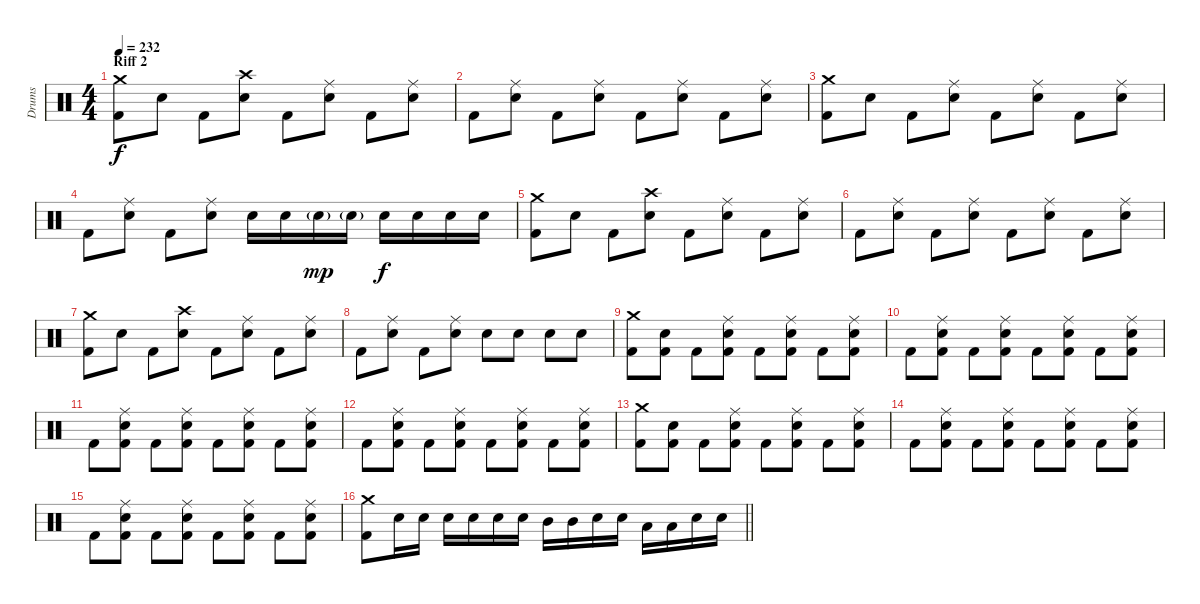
\track ("Drums" "Drums") {instrument percussion}
\staff {score}
\articulation defaults
\ts (4 4)
\section ("" "Riff 2")
\tempo 232
\clef neutral
\ks c
("Kick (hit) 2" "Crash medium (hit)").8{dy f} "Electric Snare (hit)".8 "Kick (hit) 2".8 ("Crash high (hit)" "Electric Snare (hit)").8 "Kick (hit) 2".8 ("Electric Snare (hit)" "Ride (middle)").8 "Kick (hit) 2".8 ("Electric Snare (hit)" "Ride (middle)").8 |
"Kick (hit) 2".8 ("Electric Snare (hit)" "Ride (middle)").8 "Kick (hit) 2".8 ("Electric Snare (hit)" "Ride (middle)").8 "Kick (hit) 2".8 ("Electric Snare (hit)" "Ride (middle)").8 "Kick (hit) 2".8 ("Electric Snare (hit)" "Ride (middle)").8 |
("Kick (hit) 2" "Crash medium (hit)").8 "Electric Snare (hit)".8 "Kick (hit) 2".8 ("Electric Snare (hit)" "Ride (middle)").8 "Kick (hit) 2".8 ("Electric Snare (hit)" "Ride (middle)").8 "Kick (hit) 2".8 ("Electric Snare (hit)" "Ride (middle)").8 |
"Kick (hit) 2".8 ("Electric Snare (hit)" "Ride (middle)").8 "Kick (hit) 2".8 ("Electric Snare (hit)" "Ride (middle)").8 "Electric Snare (hit)".16 "Electric Snare (hit)".16 "Electric Snare (hit)"{g}.16{dy mp} "Electric Snare (hit)"{g}.16 "Electric Snare (hit)".16{dy f} "Electric Snare (hit)".16 "Electric Snare (hit)".16 "Electric Snare (hit)".16 |
("Kick (hit) 2" "Crash medium (hit)").8 "Electric Snare (hit)".8 "Kick (hit) 2".8 ("Crash high (hit)" "Electric Snare (hit)").8 "Kick (hit) 2".8 ("Electric Snare (hit)" "Ride (middle)").8 "Kick (hit) 2".8 ("Electric Snare (hit)" "Ride (middle)").8 |
"Kick (hit) 2".8 ("Electric Snare (hit)" "Ride (middle)").8 "Kick (hit) 2".8 ("Electric Snare (hit)" "Ride (middle)").8 "Kick (hit) 2".8 ("Electric Snare (hit)" "Ride (middle)").8 "Kick (hit) 2".8 ("Electric Snare (hit)" "Ride (middle)").8 |
("Kick (hit) 2" "Crash medium (hit)").8 "Electric Snare (hit)".8 "Kick (hit) 2".8 ("Crash high (hit)" "Electric Snare (hit)").8 "Kick (hit) 2".8 ("Electric Snare (hit)" "Ride (middle)").8 "Kick (hit) 2".8 ("Electric Snare (hit)" "Ride (middle)").8 |
"Kick (hit) 2".8 ("Electric Snare (hit)" "Ride (middle)").8 "Kick (hit) 2".8 ("Electric Snare (hit)" "Ride (middle)").8 "Electric Snare (hit)".8 "Electric Snare (hit)".8 "Electric Snare (hit)".8 "Electric Snare (hit)".8 |
("Crash medium (hit)" "Kick (hit) 2").8 ("Electric Snare (hit)" "Kick (hit) 2").8 "Kick (hit) 2".8 ("Electric Snare (hit)" "Ride (middle)" "Kick (hit) 2").8 "Kick (hit) 2".8 ("Electric Snare (hit)" "Ride (middle)" "Kick (hit) 2").8 "Kick (hit) 2".8 ("Electric Snare (hit)" "Ride (middle)" "Kick (hit) 2").8 |
"Kick (hit) 2".8 ("Electric Snare (hit)" "Ride (middle)" "Kick (hit) 2").8 "Kick (hit) 2".8 ("Electric Snare (hit)" "Ride (middle)" "Kick (hit) 2").8 "Kick (hit) 2".8 ("Electric Snare (hit)" "Ride (middle)" "Kick (hit) 2").8 "Kick (hit) 2".8 ("Electric Snare (hit)" "Ride (middle)" "Kick (hit) 2").8 |
"Kick (hit) 2".8 ("Electric Snare (hit)" "Ride (middle)" "Kick (hit) 2").8 "Kick (hit) 2".8 ("Electric Snare (hit)" "Ride (middle)" "Kick (hit) 2").8 "Kick (hit) 2".8 ("Electric Snare (hit)" "Ride (middle)" "Kick (hit) 2").8 "Kick (hit) 2".8 ("Electric Snare (hit)" "Ride (middle)" "Kick (hit) 2").8 |
"Kick (hit) 2".8 ("Electric Snare (hit)" "Ride (middle)" "Kick (hit) 2").8 "Kick (hit) 2".8 ("Electric Snare (hit)" "Ride (middle)" "Kick (hit) 2").8 "Kick (hit) 2".8 ("Electric Snare (hit)" "Ride (middle)" "Kick (hit) 2").8 "Kick (hit) 2".8 ("Electric Snare (hit)" "Ride (middle)" "Kick (hit) 2").8 |
("Crash medium (hit)" "Kick (hit) 2").8 ("Electric Snare (hit)" "Kick (hit) 2").8 "Kick (hit) 2".8 ("Electric Snare (hit)" "Ride (middle)" "Kick (hit) 2").8 "Kick (hit) 2".8 ("Electric Snare (hit)" "Ride (middle)" "Kick (hit) 2").8 "Kick (hit) 2".8 ("Electric Snare (hit)" "Ride (middle)" "Kick (hit) 2").8 |
"Kick (hit) 2".8 ("Electric Snare (hit)" "Ride (middle)" "Kick (hit) 2").8 "Kick (hit) 2".8 ("Electric Snare (hit)" "Ride (middle)" "Kick (hit) 2").8 "Kick (hit) 2".8 ("Electric Snare (hit)" "Ride (middle)" "Kick (hit) 2").8 "Kick (hit) 2".8 ("Electric Snare (hit)" "Ride (middle)" "Kick (hit) 2").8 |
"Kick (hit) 2".8 ("Electric Snare (hit)" "Ride (middle)" "Kick (hit) 2").8 "Kick (hit) 2".8 ("Electric Snare (hit)" "Ride (middle)" "Kick (hit) 2").8 "Kick (hit) 2".8 ("Electric Snare (hit)" "Ride (middle)" "Kick (hit) 2").8 "Kick (hit) 2".8 ("Electric Snare (hit)" "Ride (middle)" "Kick (hit) 2").8 |
\barLineRight lightlight
("Crash medium (hit)" "Kick (hit) 2").8 "Electric Snare (hit)".16 "Electric Snare (hit)".16 "Electric Snare (hit)".16 "Electric Snare (hit)".16 "Electric Snare (hit)".16 "Electric Snare (hit)".16 "Mid Tom (hit)".16 "Mid Tom (hit)".16 "Electric Snare (hit)".16 "Electric Snare (hit)".16 "Low Tom (hit)".16 "Low Tom (hit)".16 "Electric Snare (hit)".16 "Electric Snare (hit)".16
